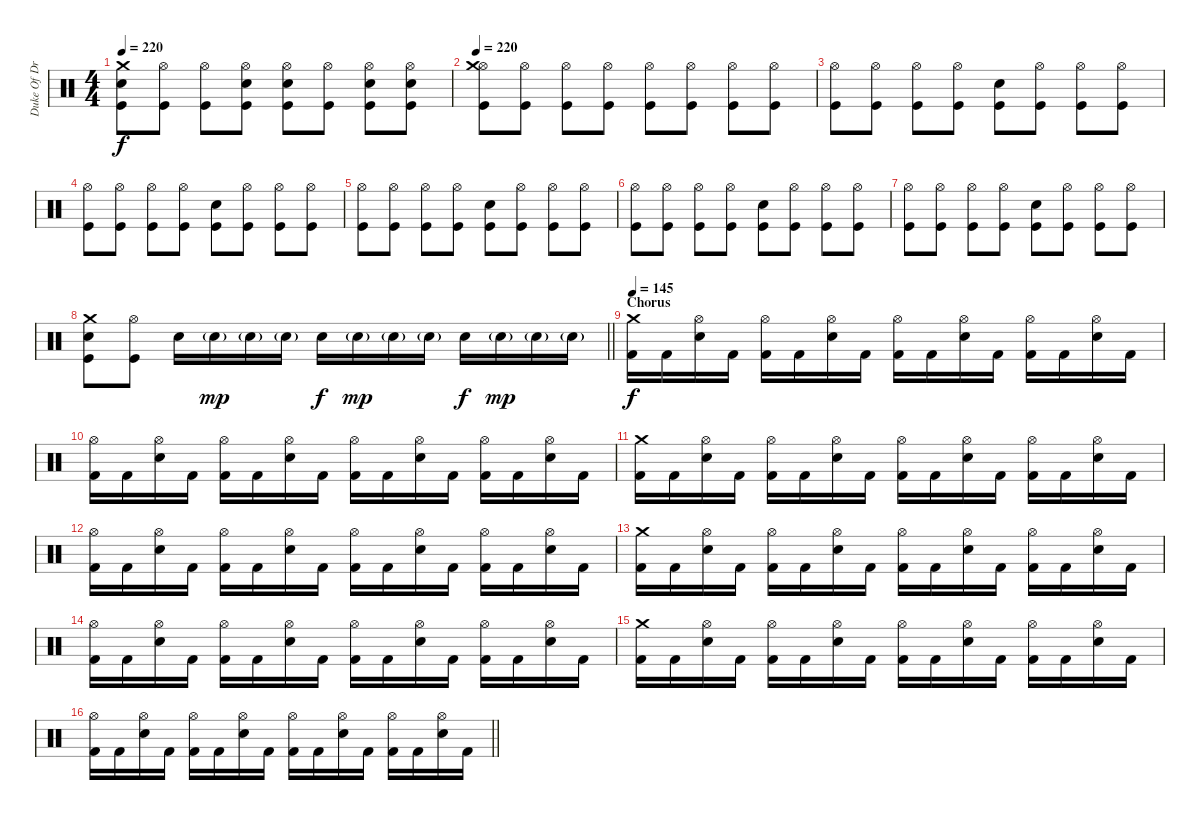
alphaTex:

\track ("Duke Of Drumington" "Duke Of Dr") {instrument percussion}
\staff {score}
\articulation defaults
\ts (4 4)
\tempo 220
\clef neutral
\ks c
("Kick (hit)" "Electric Snare (hit)" "Crash medium (hit)").8{dy f} ("Kick (hit)" "Hi-Hat (open)").8 ("Kick (hit)" "Hi-Hat (open)").8 ("Kick (hit)" "Electric Snare (hit)" "Hi-Hat (open)").8 ("Kick (hit)" "Electric Snare (hit)" "Hi-Hat (open)").8 ("Kick (hit)" "Hi-Hat (open)").8 ("Kick (hit)" "Electric Snare (hit)" "Hi-Hat (open)").8 ("Kick (hit)" "Electric Snare (hit)" "Hi-Hat (open)").8 |
\tempo 220
("Kick (hit)" "Hi-Hat (open)" "Crash medium (hit)").8 ("Kick (hit)" "Hi-Hat (open)").8 ("Kick (hit)" "Hi-Hat (open)").8 ("Kick (hit)" "Hi-Hat (open)").8 ("Kick (hit)" "Hi-Hat (open)").8 ("Kick (hit)" "Hi-Hat (open)").8 ("Kick (hit)" "Hi-Hat (open)").8 ("Kick (hit)" "Hi-Hat (open)").8 |
("Kick (hit)" "Hi-Hat (open)").8 ("Kick (hit)" "Hi-Hat (open)").8 ("Kick (hit)" "Hi-Hat (open)").8 ("Kick (hit)" "Hi-Hat (open)").8 ("Kick (hit)" "Electric Snare (hit)").8 ("Kick (hit)" "Hi-Hat (open)").8 ("Kick (hit)" "Hi-Hat (open)").8 ("Kick (hit)" "Hi-Hat (open)").8 |
("Kick (hit)" "Hi-Hat (open)").8 ("Kick (hit)" "Hi-Hat (open)").8 ("Kick (hit)" "Hi-Hat (open)").8 ("Kick (hit)" "Hi-Hat (open)").8 ("Kick (hit)" "Electric Snare (hit)").8 ("Kick (hit)" "Hi-Hat (open)").8 ("Kick (hit)" "Hi-Hat (open)").8 ("Kick (hit)" "Hi-Hat (open)").8 |
("Kick (hit)" "Hi-Hat (open)").8 ("Kick (hit)" "Hi-Hat (open)").8 ("Kick (hit)" "Hi-Hat (open)").8 ("Kick (hit)" "Hi-Hat (open)").8 ("Kick (hit)" "Electric Snare (hit)").8 ("Kick (hit)" "Hi-Hat (open)").8 ("Kick (hit)" "Hi-Hat (open)").8 ("Kick (hit)" "Hi-Hat (open)").8 |
("Kick (hit)" "Hi-Hat (open)").8 ("Kick (hit)" "Hi-Hat (open)").8 ("Kick (hit)" "Hi-Hat (open)").8 ("Kick (hit)" "Hi-Hat (open)").8 ("Kick (hit)" "Electric Snare (hit)").8 ("Kick (hit)" "Hi-Hat (open)").8 ("Kick (hit)" "Hi-Hat (open)").8 ("Kick (hit)" "Hi-Hat (open)").8 |
("Kick (hit)" "Hi-Hat (open)").8 ("Kick (hit)" "Hi-Hat (open)").8 ("Kick (hit)" "Hi-Hat (open)").8 ("Kick (hit)" "Hi-Hat (open)").8 ("Kick (hit)" "Electric Snare (hit)").8 ("Kick (hit)" "Hi-Hat (open)").8 ("Kick (hit)" "Hi-Hat (open)").8 ("Kick (hit)" "Hi-Hat (open)").8 |
\barLineRight lightlight
("Kick (hit)" "Electric Snare (hit)" "Crash medium (hit)").8 ("Kick (hit)" "Hi-Hat (open)").8 "Electric Snare (hit)".16{volume 16} "Electric Snare (hit)"{g}.16{dy mp} "Electric Snare (hit)"{g}.16 "Electric Snare (hit)"{g}.16 "Electric Snare (hit)".16{dy f} "Electric Snare (hit)"{g}.16{dy mp} "Electric Snare (hit)"{g}.16 "Electric Snare (hit)"{g}.16 "Electric Snare (hit)".16{dy f} "Electric Snare (hit)"{g}.16{dy mp} "Electric Snare (hit)"{g}.16 "Electric Snare (hit)"{g}.16 |
\section ("" "Chorus")
\tempo 145
("Kick (hit) 2" "Crash medium (hit)").16{dy f volume 14} "Kick (hit) 2".16 ("Snare (hit) 2" "Hi-Hat (open)").16 "Kick (hit) 2".16 ("Kick (hit) 2" "Hi-Hat (open)").16 "Kick (hit) 2".16 ("Snare (hit) 2" "Hi-Hat (open)").16 "Kick (hit) 2".16 ("Kick (hit) 2" "Hi-Hat (open)").16 "Kick (hit) 2".16 ("Snare (hit) 2" "Hi-Hat (open)").16 "Kick (hit) 2".16 ("Kick (hit) 2" "Hi-Hat (open)").16 "Kick (hit) 2".16 ("Snare (hit) 2" "Hi-Hat (open)").16 "Kick (hit) 2".16 |
("Kick (hit) 2" "Hi-Hat (open)").16 "Kick (hit) 2".16 ("Snare (hit) 2" "Hi-Hat (open)").16 "Kick (hit) 2".16 ("Kick (hit) 2" "Hi-Hat (open)").16 "Kick (hit) 2".16 ("Snare (hit) 2" "Hi-Hat (open)").16 "Kick (hit) 2".16 ("Kick (hit) 2" "Hi-Hat (open)").16 "Kick (hit) 2".16 ("Snare (hit) 2" "Hi-Hat (open)").16 "Kick (hit) 2".16 ("Kick (hit) 2" "Hi-Hat (open)").16 "Kick (hit) 2".16 ("Snare (hit) 2" "Hi-Hat (open)").16 "Kick (hit) 2".16 |
("Kick (hit) 2" "Crash medium (hit)").16 "Kick (hit) 2".16 ("Snare (hit) 2" "Hi-Hat (open)").16 "Kick (hit) 2".16 ("Kick (hit) 2" "Hi-Hat (open)").16 "Kick (hit) 2".16 ("Snare (hit) 2" "Hi-Hat (open)").16 "Kick (hit) 2".16 ("Kick (hit) 2" "Hi-Hat (open)").16 "Kick (hit) 2".16 ("Snare (hit) 2" "Hi-Hat (open)").16 "Kick (hit) 2".16 ("Kick (hit) 2" "Hi-Hat (open)").16 "Kick (hit) 2".16 ("Snare (hit) 2" "Hi-Hat (open)").16 "Kick (hit) 2".16 |
("Kick (hit) 2" "Hi-Hat (open)").16 "Kick (hit) 2".16 ("Snare (hit) 2" "Hi-Hat (open)").16 "Kick (hit) 2".16 ("Kick (hit) 2" "Hi-Hat (open)").16 "Kick (hit) 2".16 ("Snare (hit) 2" "Hi-Hat (open)").16 "Kick (hit) 2".16 ("Kick (hit) 2" "Hi-Hat (open)").16 "Kick (hit) 2".16 ("Snare (hit) 2" "Hi-Hat (open)").16 "Kick (hit) 2".16 ("Kick (hit) 2" "Hi-Hat (open)").16 "Kick (hit) 2".16 ("Snare (hit) 2" "Hi-Hat (open)").16 "Kick (hit) 2".16 |
("Kick (hit) 2" "Crash medium (hit)").16 "Kick (hit) 2".16 ("Snare (hit) 2" "Hi-Hat (open)").16 "Kick (hit) 2".16 ("Kick (hit) 2" "Hi-Hat (open)").16 "Kick (hit) 2".16 ("Snare (hit) 2" "Hi-Hat (open)").16 "Kick (hit) 2".16 ("Kick (hit) 2" "Hi-Hat (open)").16 "Kick (hit) 2".16 ("Snare (hit) 2" "Hi-Hat (open)").16 "Kick (hit) 2".16 ("Kick (hit) 2" "Hi-Hat (open)").16 "Kick (hit) 2".16 ("Snare (hit) 2" "Hi-Hat (open)").16 "Kick (hit) 2".16 |
("Kick (hit) 2" "Hi-Hat (open)").16 "Kick (hit) 2".16 ("Snare (hit) 2" "Hi-Hat (open)").16 "Kick (hit) 2".16 ("Kick (hit) 2" "Hi-Hat (open)").16 "Kick (hit) 2".16 ("Snare (hit) 2" "Hi-Hat (open)").16 "Kick (hit) 2".16 ("Kick (hit) 2" "Hi-Hat (open)").16 "Kick (hit) 2".16 ("Snare (hit) 2" "Hi-Hat (open)").16 "Kick (hit) 2".16 ("Kick (hit) 2" "Hi-Hat (open)").16 "Kick (hit) 2".16 ("Snare (hit) 2" "Hi-Hat (open)").16 "Kick (hit) 2".16 |
("Kick (hit) 2" "Crash medium (hit)").16 "Kick (hit) 2".16 ("Snare (hit) 2" "Hi-Hat (open)").16 "Kick (hit) 2".16 ("Kick (hit) 2" "Hi-Hat (open)").16 "Kick (hit) 2".16 ("Snare (hit) 2" "Hi-Hat (open)").16 "Kick (hit) 2".16 ("Kick (hit) 2" "Hi-Hat (open)").16 "Kick (hit) 2".16 ("Snare (hit) 2" "Hi-Hat (open)").16 "Kick (hit) 2".16 ("Kick (hit) 2" "Hi-Hat (open)").16 "Kick (hit) 2".16 ("Snare (hit) 2" "Hi-Hat (open)").16 "Kick (hit) 2".16 |
\barLineRight lightlight
("Kick (hit) 2" "Hi-Hat (open)").16 "Kick (hit) 2".16 ("Snare (hit) 2" "Hi-Hat (open)").16 "Kick (hit) 2".16 ("Kick (hit) 2" "Hi-Hat (open)").16 "Kick (hit) 2".16 ("Snare (hit) 2" "Hi-Hat (open)").16 "Kick (hit) 2".16 ("Kick (hit) 2" "Hi-Hat (open)").16 "Kick (hit) 2".16 ("Snare (hit) 2" "Hi-Hat (open)").16 "Kick (hit) 2".16 ("Kick (hit) 2" "Hi-Hat (open)").16 "Kick (hit) 2".16 ("Snare (hit) 2" "Hi-Hat (open)").16 "Kick (hit) 2".16
